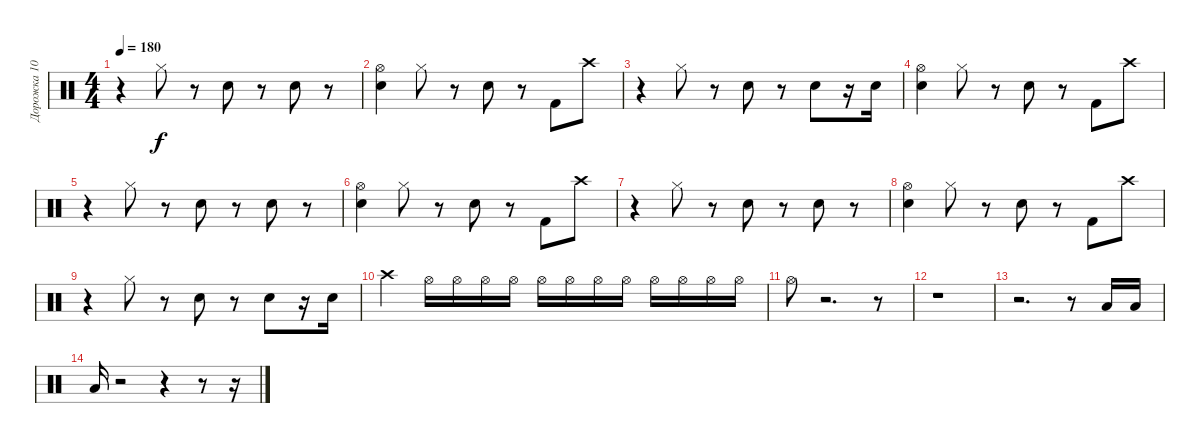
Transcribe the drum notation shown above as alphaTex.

\track ("Дорожка 10" "Дорожка 10") {instrument percussion}
\staff {score}
\articulation defaults
\ts (4 4)
\tempo 180
\clef neutral
\ks c
r.4{dy f} "Hi-Hat (closed)".8 r.8 "Snare (hit) 2".8 r.8 "Snare (hit) 2".8 r.8 |
("Snare (hit) 2" "Hi-Hat (open)").4 "Hi-Hat (closed)".8 r.8 "Snare (hit) 2".8 r.8 "Kick (hit) 2".8 "Crash high (hit)".8 |
r.4 "Hi-Hat (closed)".8 r.8 "Snare (hit) 2".8 r.8 "Snare (hit) 2".8 r.16 "Snare (hit) 2".16 |
("Snare (hit) 2" "Hi-Hat (open)").4 "Hi-Hat (closed)".8 r.8 "Snare (hit) 2".8 r.8 "Kick (hit) 2".8 "Crash high (hit)".8 |
r.4 "Hi-Hat (closed)".8 r.8 "Snare (hit) 2".8 r.8 "Snare (hit) 2".8 r.8 |
("Snare (hit) 2" "Hi-Hat (open)").4 "Hi-Hat (closed)".8 r.8 "Snare (hit) 2".8 r.8 "Kick (hit) 2".8 "Crash high (hit)".8 |
r.4 "Hi-Hat (closed)".8 r.8 "Snare (hit) 2".8 r.8 "Snare (hit) 2".8 r.8 |
("Snare (hit) 2" "Hi-Hat (open)").4 "Hi-Hat (closed)".8 r.8 "Snare (hit) 2".8 r.8 "Kick (hit) 2".8 "Crash high (hit)".8 |
r.4 "Hi-Hat (closed)".8 r.8 "Snare (hit) 2".8 r.8 "Snare (hit) 2".8 r.16 "Snare (hit) 2".16 |
"Crash high (hit)".4 "Hi-Hat (open)".16 "Hi-Hat (open)".16 "Hi-Hat (open)".16 "Hi-Hat (open)".16 "Hi-Hat (open)".16 "Hi-Hat (open)".16 "Hi-Hat (open)".16 "Hi-Hat (open)".16 "Hi-Hat (open)".16 "Hi-Hat (open)".16 "Hi-Hat (open)".16 "Hi-Hat (open)".16 |
"Hi-Hat (open)".8 r.2{d} r.8 |
r.1 |
r.2{d} r.8 "Low Tom (hit)".16 "Low Tom (hit)".16 |
"Low Tom (hit)".16 r.2 r.4 r.8 r.16
